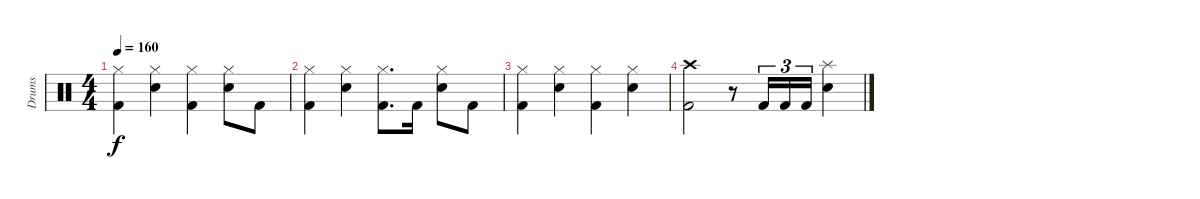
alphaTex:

\track ("Drums" "Drums") {instrument percussion}
\staff {score}
\articulation defaults
\ts (4 4)
\tempo 160
\clef neutral
\ks c
("Kick (hit) 2" "Hi-Hat (closed)").4{dy f} ("Hi-Hat (closed)" "Electric Snare (hit)").4 ("Kick (hit) 2" "Hi-Hat (closed)").4 ("Hi-Hat (closed)" "Electric Snare (hit)").8 "Kick (hit) 2".8 |
("Kick (hit) 2" "Hi-Hat (closed)").4 ("Hi-Hat (closed)" "Electric Snare (hit)").4 ("Kick (hit) 2" "Hi-Hat (closed)").8{d} "Kick (hit) 2".16 ("Hi-Hat (closed)" "Electric Snare (hit)").8 "Kick (hit) 2".8 |
("Kick (hit) 2" "Hi-Hat (closed)").4 ("Hi-Hat (closed)" "Electric Snare (hit)").4 ("Kick (hit) 2" "Hi-Hat (closed)").4 ("Hi-Hat (closed)" "Electric Snare (hit)").4 |
("Kick (hit) 2" "Crash high (hit)").2 r.8 "Kick (hit) 2".16{tu (3 2)} "Kick (hit) 2".16{tu (3 2)} "Kick (hit) 2".16{tu (3 2)} ("Splash (hit)" "Electric Snare (hit)").4
